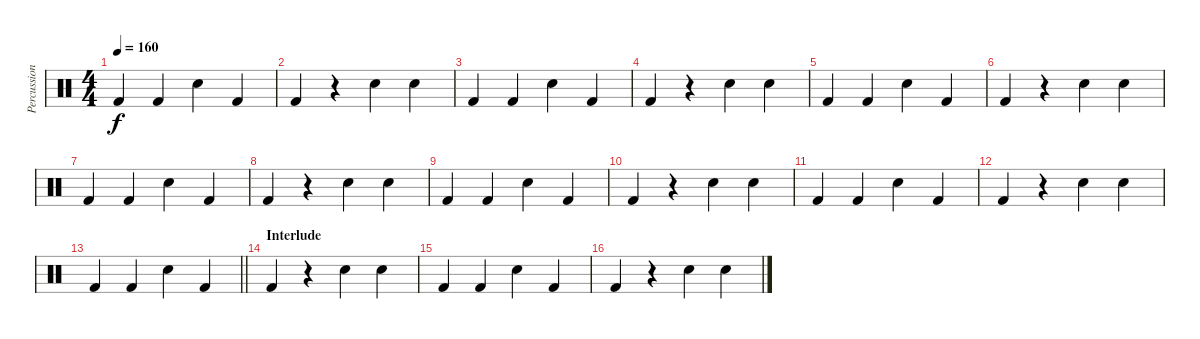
\track ("Percussion" "Percussion") {instrument percussion}
\staff {score}
\articulation defaults
\ts (4 4)
\tempo 160
\clef neutral
\ks c "Kick (hit) 2".4{dy f} "Kick (hit) 2".4 "Electric Snare (hit)".4 "Kick (hit) 2".4
|
"Kick (hit) 2".4 r.4 "Electric Snare (hit)".4 "Electric Snare (hit)".4 |
"Kick (hit) 2".4 "Kick (hit) 2".4 "Electric Snare (hit)".4 "Kick (hit) 2".4 |
"Kick (hit) 2".4 r.4 "Electric Snare (hit)".4 "Electric Snare (hit)".4 |
"Kick (hit) 2".4 "Kick (hit) 2".4 "Electric Snare (hit)".4 "Kick (hit) 2".4 |
"Kick (hit) 2".4 r.4 "Electric Snare (hit)".4 "Electric Snare (hit)".4 |
"Kick (hit) 2".4 "Kick (hit) 2".4 "Electric Snare (hit)".4 "Kick (hit) 2".4 |
"Kick (hit) 2".4 r.4 "Electric Snare (hit)".4 "Electric Snare (hit)".4 |
"Kick (hit) 2".4 "Kick (hit) 2".4 "Electric Snare (hit)".4 "Kick (hit) 2".4 |
"Kick (hit) 2".4 r.4 "Electric Snare (hit)".4 "Electric Snare (hit)".4 |
"Kick (hit) 2".4 "Kick (hit) 2".4 "Electric Snare (hit)".4 "Kick (hit) 2".4 |
"Kick (hit) 2".4 r.4 "Electric Snare (hit)".4 "Electric Snare (hit)".4 |
\barLineRight lightlight "Kick (hit) 2".4 "Kick (hit) 2".4 "Electric Snare (hit)".4 "Kick (hit) 2".4
|
\section ("" "Interlude ")
"Kick (hit) 2".4 r.4 "Electric Snare (hit)".4 "Electric Snare (hit)".4 |
"Kick (hit) 2".4 "Kick (hit) 2".4 "Electric Snare (hit)".4 "Kick (hit) 2".4 |
"Kick (hit) 2".4 r.4 "Electric Snare (hit)".4 "Electric Snare (hit)".4
